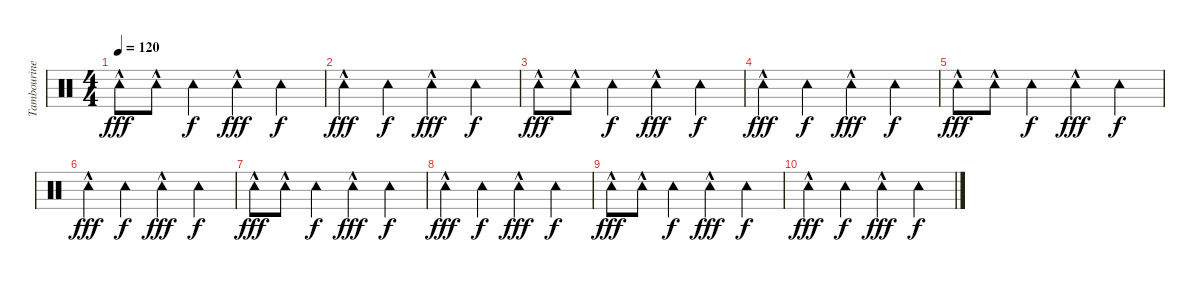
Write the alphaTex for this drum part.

\track ("Tambourine" "Tambourine") {instrument percussion}
\staff {score}
\articulation defaults
\ts (4 4)
\tempo 120
\clef neutral
\ks c "Tambourine (hit)"{hac}.8{dy fff} "Tambourine (hit)"{hac}.8 "Tambourine (hit)".4{dy f} "Tambourine (hit)"{hac}.4{dy fff} "Tambourine (hit)".4{dy f}
|
"Tambourine (hit)"{hac}.4{dy fff} "Tambourine (hit)".4{dy f} "Tambourine (hit)"{hac}.4{dy fff} "Tambourine (hit)".4{dy f} |
"Tambourine (hit)"{hac}.8{dy fff} "Tambourine (hit)"{hac}.8 "Tambourine (hit)".4{dy f} "Tambourine (hit)"{hac}.4{dy fff} "Tambourine (hit)".4{dy f} |
"Tambourine (hit)"{hac}.4{dy fff} "Tambourine (hit)".4{dy f} "Tambourine (hit)"{hac}.4{dy fff} "Tambourine (hit)".4{dy f} |
"Tambourine (hit)"{hac}.8{dy fff} "Tambourine (hit)"{hac}.8 "Tambourine (hit)".4{dy f} "Tambourine (hit)"{hac}.4{dy fff} "Tambourine (hit)".4{dy f} |
"Tambourine (hit)"{hac}.4{dy fff} "Tambourine (hit)".4{dy f} "Tambourine (hit)"{hac}.4{dy fff} "Tambourine (hit)".4{dy f} |
"Tambourine (hit)"{hac}.8{dy fff} "Tambourine (hit)"{hac}.8 "Tambourine (hit)".4{dy f} "Tambourine (hit)"{hac}.4{dy fff} "Tambourine (hit)".4{dy f} |
"Tambourine (hit)"{hac}.4{dy fff} "Tambourine (hit)".4{dy f} "Tambourine (hit)"{hac}.4{dy fff} "Tambourine (hit)".4{dy f} |
"Tambourine (hit)"{hac}.8{dy fff} "Tambourine (hit)"{hac}.8 "Tambourine (hit)".4{dy f} "Tambourine (hit)"{hac}.4{dy fff} "Tambourine (hit)".4{dy f} |
"Tambourine (hit)"{hac}.4{dy fff} "Tambourine (hit)".4{dy f} "Tambourine (hit)"{hac}.4{dy fff} "Tambourine (hit)".4{dy f}
